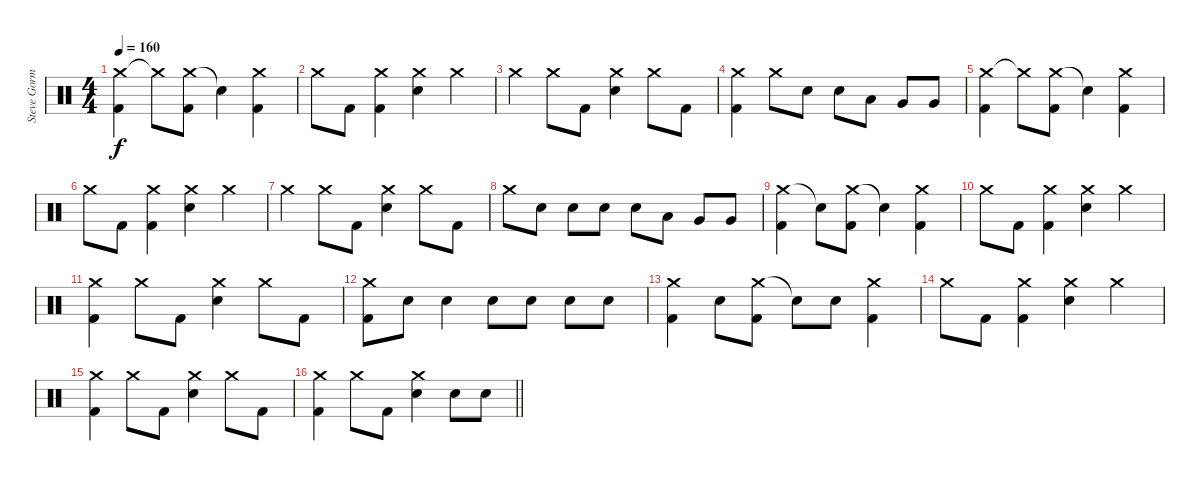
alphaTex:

\track ("Steve Gorman " "Steve Gorm") {instrument percussion}
\staff {score}
\articulation defaults
\ts (4 4)
\tempo 160
\clef neutral
\ks c
("Crash medium (hit)" "Kick (hit) 2").4{dy f} "Crash medium (hit)"{t}.8 ("Crash medium (hit)" "Kick (hit) 2").8 "Snare (hit)"{t}.4 ("Crash medium (hit)" "Kick (hit) 2").4 |
"Crash medium (hit)".8 "Kick (hit) 2".8 ("Crash medium (hit)" "Kick (hit) 2").4 ("Crash medium (hit)" "Snare (hit) 2").4 "Crash medium (hit)".4 |
"Crash medium (hit)".4 "Crash medium (hit)".8 "Kick (hit) 2".8 ("Crash medium (hit)" "Snare (hit) 2").4 "Crash medium (hit)".8 "Kick (hit) 2".8 |
("Crash medium (hit)" "Kick (hit) 2").4 "Crash medium (hit)".8 "Snare (hit) 2".8 "Snare (hit) 2".8 "Low Tom (hit)".8 "Very Low Tom (hit)".8 "Very Low Tom (hit)".8 |
("Crash medium (hit)" "Kick (hit) 2").4 "Crash medium (hit)"{t}.8 ("Crash medium (hit)" "Kick (hit) 2").8 "Snare (hit)"{t}.4 ("Crash medium (hit)" "Kick (hit) 2").4 |
"Crash medium (hit)".8 "Kick (hit) 2".8 ("Crash medium (hit)" "Kick (hit) 2").4 ("Crash medium (hit)" "Snare (hit) 2").4 "Crash medium (hit)".4 |
"Crash medium (hit)".4 "Crash medium (hit)".8 "Kick (hit) 2".8 ("Crash medium (hit)" "Snare (hit) 2").4 "Crash medium (hit)".8 "Kick (hit) 2".8 |
"Crash medium (hit)".8 "Snare (hit) 2".8 "Snare (hit) 2".8 "Snare (hit) 2".8 "Snare (hit) 2".8 "Low Tom (hit)".8 "Very Low Tom (hit)".8 "Very Low Tom (hit)".8 |
("Crash medium (hit)" "Kick (hit) 2").4 "Snare (hit)"{t}.8 ("Crash medium (hit)" "Kick (hit) 2").8 "Snare (hit)"{t}.4 ("Crash medium (hit)" "Kick (hit) 2").4 |
"Crash medium (hit)".8 "Kick (hit) 2".8 ("Crash medium (hit)" "Kick (hit) 2").4 ("Crash medium (hit)" "Snare (hit) 2").4 "Crash medium (hit)".4 |
("Crash medium (hit)" "Kick (hit) 2").4 "Crash medium (hit)".8 "Kick (hit) 2".8 ("Crash medium (hit)" "Snare (hit) 2").4 "Crash medium (hit)".8 "Kick (hit) 2".8 |
("Crash medium (hit)" "Kick (hit) 2").8 "Snare (hit) 2".8 "Snare (hit) 2".4 "Snare (hit) 2".8 "Snare (hit) 2".8 "Snare (hit) 2".8 "Snare (hit) 2".8 |
("Crash medium (hit)" "Kick (hit) 2").4 "Snare (hit) 2".8 ("Crash medium (hit)" "Kick (hit) 2").8 "Snare (hit)"{t}.8 "Snare (hit) 2".8 ("Crash medium (hit)" "Kick (hit) 2").4 |
"Crash medium (hit)".8 "Kick (hit) 2".8 ("Crash medium (hit)" "Kick (hit) 2").4 ("Crash medium (hit)" "Snare (hit) 2").4 "Crash medium (hit)".4 |
("Crash medium (hit)" "Kick (hit) 2").4 "Crash medium (hit)".8 "Kick (hit) 2".8 ("Crash medium (hit)" "Snare (hit) 2").4 "Crash medium (hit)".8 "Kick (hit) 2".8 |
\barLineRight lightlight
("Crash medium (hit)" "Kick (hit) 2").4 "Crash medium (hit)".8 "Kick (hit) 2".8 ("Crash medium (hit)" "Snare (hit) 2").4 "Snare (hit) 2".8 "Snare (hit) 2".8
